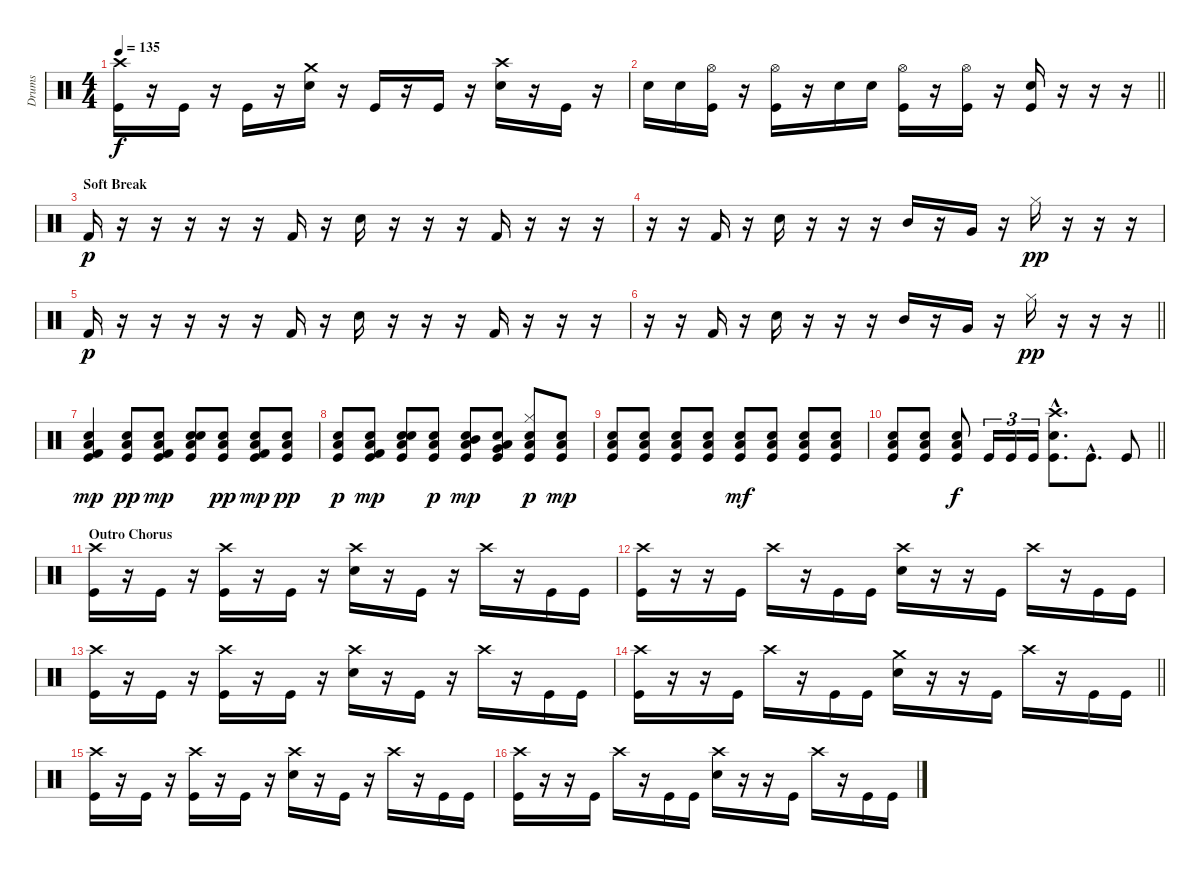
\track ("Drums" "Drums") {instrument percussion}
\staff {score}
\articulation defaults
\ts (4 4)
\tempo 135
\clef neutral
\ks c
("Crash high (hit)" "Kick (hit)").16{dy f} r.16 "Kick (hit)".16 r.16 "Kick (hit)".16 r.16 ("Crash medium (hit)" "Snare (hit) 2").16 r.16 "Kick (hit)".16 r.16 "Kick (hit)".16 r.16 ("Crash high (hit)" "Snare (hit) 2").16 r.16 "Kick (hit)".16 r.16 |
\barLineRight lightlight "Snare (hit) 2".16 "Snare (hit) 2".16
("Hi-Hat (open)" "Kick (hit)").16 r.16 ("Hi-Hat (open)" "Kick (hit)").16 r.16 "Snare (hit) 2".16 "Snare (hit) 2".16 ("Hi-Hat (open)" "Kick (hit)").16 r.16 ("Hi-Hat (open)" "Kick (hit)").16 r.16 ("Snare (hit) 2" "Kick (hit)").16 r.16 r.16 r.16 |
\section ("" "Soft Break")
"Kick (hit) 2".16{dy p} r.16 r.16 r.16 r.16 r.16 "Kick (hit) 2".16 r.16 "Electric Snare (hit)".16 r.16 r.16 r.16 "Kick (hit) 2".16 r.16 r.16 r.16 |
r.16 r.16 "Kick (hit) 2".16 r.16 "Electric Snare (hit)".16 r.16 r.16 r.16 "Mid Tom (hit)".16 r.16 "Very Low Tom (hit)".16 r.16 "Hi-Hat (closed)".16{dy pp} r.16 r.16 r.16 |
"Kick (hit) 2".16{dy p} r.16 r.16 r.16 r.16 r.16 "Kick (hit) 2".16 r.16 "Electric Snare (hit)".16 r.16 r.16 r.16 "Kick (hit) 2".16 r.16 r.16 r.16 |
\barLineRight lightlight
r.16 r.16 "Kick (hit) 2".16 r.16 "Electric Snare (hit)".16 r.16 r.16 r.16 "Mid Tom (hit)".16 r.16 "Very Low Tom (hit)".16 r.16 "Hi-Hat (closed)".16{dy pp} r.16 r.16 r.16 |
("Low Floor Tom (hit)" "Snare (hit) 2" "Kick (hit)" "Kick (hit) 2").4{dy mp} ("Low Floor Tom (hit)" "Snare (hit) 2" "Kick (hit)").8{dy pp} ("Low Floor Tom (hit)" "Snare (hit) 2" "Kick (hit)" "Kick (hit) 2").8{dy mp} ("Low Floor Tom (hit)" "Snare (hit) 2" "Kick (hit)" "Electric Snare (hit)").8 ("Low Floor Tom (hit)" "Snare (hit) 2" "Kick (hit)").8{dy pp} ("Low Floor Tom (hit)" "Snare (hit) 2" "Kick (hit)" "Kick (hit) 2").8{dy mp} ("Low Floor Tom (hit)" "Snare (hit) 2" "Kick (hit)").8{dy pp} |
("Low Floor Tom (hit)" "Snare (hit) 2" "Kick (hit)").8{dy p} ("Low Floor Tom (hit)" "Snare (hit) 2" "Kick (hit)" "Kick (hit) 2").8{dy mp} ("Low Floor Tom (hit)" "Snare (hit) 2" "Kick (hit)" "Electric Snare (hit)").8 ("Low Floor Tom (hit)" "Snare (hit) 2" "Kick (hit)").8{dy p} ("Low Floor Tom (hit)" "Snare (hit) 2" "Kick (hit)" "Mid Tom (hit)").8{dy mp} ("Low Floor Tom (hit)" "Snare (hit) 2" "Kick (hit)" "Very Low Tom (hit)").8 ("Low Floor Tom (hit)" "Snare (hit) 2" "Kick (hit)" "Hi-Hat (closed)").8{dy p} ("Low Floor Tom (hit)" "Snare (hit) 2" "Kick (hit)").8{dy mp} |
("Low Floor Tom (hit)" "Snare (hit) 2" "Kick (hit)").8 ("Low Floor Tom (hit)" "Snare (hit) 2" "Kick (hit)").8 ("Low Floor Tom (hit)" "Snare (hit) 2" "Kick (hit)").8 ("Low Floor Tom (hit)" "Snare (hit) 2" "Kick (hit)").8 ("Low Floor Tom (hit)" "Snare (hit) 2" "Kick (hit)").8{dy mf} ("Low Floor Tom (hit)" "Snare (hit) 2" "Kick (hit)").8 ("Low Floor Tom (hit)" "Snare (hit) 2" "Kick (hit)").8 ("Low Floor Tom (hit)" "Snare (hit) 2" "Kick (hit)").8 |
\barLineRight lightlight
("Low Floor Tom (hit)" "Snare (hit) 2" "Kick (hit)").8 ("Low Floor Tom (hit)" "Snare (hit) 2" "Kick (hit)").8 ("Low Floor Tom (hit)" "Snare (hit) 2" "Kick (hit)").8{dy f} "Kick (hit)".16{tu (3 2)} "Kick (hit)".16{tu (3 2)} "Kick (hit)".16{tu (3 2)} ("Crash high (hit)"{hac} "Kick (hit)"{hac} "Snare (hit) 2"{hac}).8{d} "Kick (hit)"{hac}.8{d} "Kick (hit)".8 |
\section ("" "Outro Chorus")
("Crash high (hit)" "Kick (hit)").16 r.16 "Kick (hit)".16 r.16 ("Crash high (hit)" "Kick (hit)").16 r.16 "Kick (hit)".16 r.16 ("Crash high (hit)" "Snare (hit) 2").16 r.16 "Kick (hit)".16 r.16 "Crash high (hit)".16 r.16 "Kick (hit)".16 "Kick (hit)".16 |
("Crash high (hit)" "Kick (hit)").16 r.16 r.16 "Kick (hit)".16 "Crash high (hit)".16 r.16 "Kick (hit)".16 "Kick (hit)".16 ("Crash high (hit)" "Snare (hit) 2").16 r.16 r.16 "Kick (hit)".16 "Crash high (hit)".16 r.16 "Kick (hit)".16 "Kick (hit)".16 |
("Crash high (hit)" "Kick (hit)").16 r.16 "Kick (hit)".16 r.16 ("Crash high (hit)" "Kick (hit)").16 r.16 "Kick (hit)".16 r.16 ("Crash high (hit)" "Snare (hit) 2").16 r.16 "Kick (hit)".16 r.16 "Crash high (hit)".16 r.16 "Kick (hit)".16 "Kick (hit)".16 |
\barLineRight lightlight
("Crash high (hit)" "Kick (hit)").16 r.16 r.16 "Kick (hit)".16 "Crash high (hit)".16 r.16 "Kick (hit)".16 "Kick (hit)".16 ("Crash medium (hit)" "Snare (hit) 2").16 r.16 r.16 "Kick (hit)".16 "Crash high (hit)".16 r.16 "Kick (hit)".16 "Kick (hit)".16 |
("Crash high (hit)" "Kick (hit)").16 r.16 "Kick (hit)".16 r.16 ("Crash high (hit)" "Kick (hit)").16 r.16 "Kick (hit)".16 r.16 ("Crash high (hit)" "Snare (hit) 2").16 r.16 "Kick (hit)".16 r.16 "Crash high (hit)".16 r.16 "Kick (hit)".16 "Kick (hit)".16 |
("Crash high (hit)" "Kick (hit)").16 r.16 r.16 "Kick (hit)".16 "Crash high (hit)".16 r.16 "Kick (hit)".16 "Kick (hit)".16 ("Crash high (hit)" "Snare (hit) 2").16 r.16 r.16 "Kick (hit)".16 "Crash high (hit)".16 r.16 "Kick (hit)".16 "Kick (hit)".16
